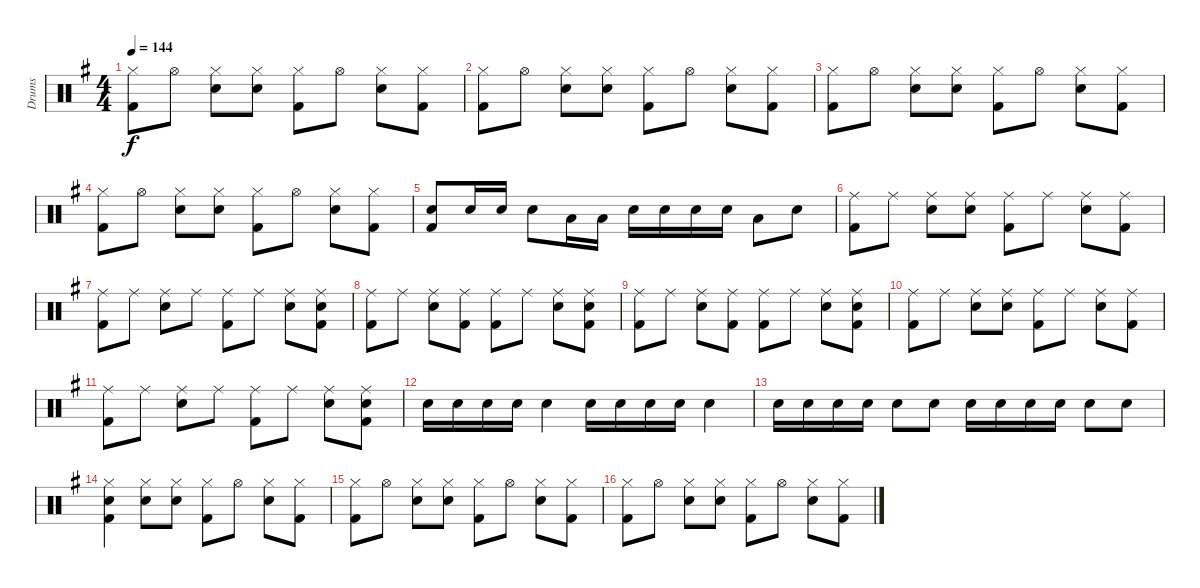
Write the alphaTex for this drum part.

\track ("Drums" "Drums") {instrument percussion}
\staff {score}
\articulation defaults
\ts (4 4)
\tempo 144
\clef neutral
\ks g
("Hi-Hat (closed)" "Kick (hit) 2").8{dy f} "Hi-Hat (open)".8 ("Hi-Hat (closed)" "Snare (hit) 2").8 ("Hi-Hat (closed)" "Snare (hit) 2").8 ("Hi-Hat (closed)" "Kick (hit) 2").8 "Hi-Hat (open)".8 ("Hi-Hat (closed)" "Snare (hit) 2").8 ("Hi-Hat (closed)" "Kick (hit) 2").8 |
("Hi-Hat (closed)" "Kick (hit) 2").8 "Hi-Hat (open)".8 ("Hi-Hat (closed)" "Snare (hit) 2").8 ("Hi-Hat (closed)" "Snare (hit) 2").8 ("Hi-Hat (closed)" "Kick (hit) 2").8 "Hi-Hat (open)".8 ("Hi-Hat (closed)" "Snare (hit) 2").8 ("Hi-Hat (closed)" "Kick (hit) 2").8 |
("Hi-Hat (closed)" "Kick (hit) 2").8 "Hi-Hat (open)".8 ("Hi-Hat (closed)" "Snare (hit) 2").8 ("Hi-Hat (closed)" "Snare (hit) 2").8 ("Hi-Hat (closed)" "Kick (hit) 2").8 "Hi-Hat (open)".8 ("Hi-Hat (closed)" "Snare (hit) 2").8 ("Hi-Hat (closed)" "Kick (hit) 2").8 |
("Hi-Hat (closed)" "Kick (hit) 2").8 "Hi-Hat (open)".8 ("Hi-Hat (closed)" "Snare (hit) 2").8 ("Hi-Hat (closed)" "Snare (hit) 2").8 ("Hi-Hat (closed)" "Kick (hit) 2").8 "Hi-Hat (open)".8 ("Hi-Hat (closed)" "Snare (hit) 2").8 ("Hi-Hat (closed)" "Kick (hit) 2").8 |
("Snare (hit) 2" "Kick (hit) 2").8 "Snare (hit) 2".16 "Snare (hit) 2".16 "Snare (hit) 2".8 "Low Tom (hit)".16 "Low Tom (hit)".16 "Snare (hit) 2".16 "Snare (hit) 2".16 "Snare (hit) 2".16 "Snare (hit) 2".16 "Low Tom (hit)".8 "Snare (hit) 2".8 |
("Ride (middle)" "Kick (hit) 2").8 "Ride (middle)".8 ("Ride (middle)" "Snare (hit) 2").8 ("Ride (middle)" "Snare (hit) 2").8 ("Ride (middle)" "Kick (hit) 2").8 "Ride (middle)".8 ("Ride (middle)" "Snare (hit) 2").8 ("Ride (middle)" "Kick (hit) 2").8 |
("Ride (middle)" "Kick (hit) 2").8 "Ride (middle)".8 ("Ride (middle)" "Snare (hit) 2").8 "Ride (middle)".8 ("Ride (middle)" "Kick (hit) 2").8 "Ride (middle)".8 ("Ride (middle)" "Snare (hit) 2").8 ("Ride (middle)" "Snare (hit) 2" "Kick (hit) 2").8 |
("Ride (middle)" "Kick (hit) 2").8 "Ride (middle)".8 ("Ride (middle)" "Snare (hit) 2").8 ("Ride (middle)" "Kick (hit) 2").8 ("Ride (middle)" "Kick (hit) 2").8 "Ride (middle)".8 ("Ride (middle)" "Snare (hit) 2").8 ("Ride (middle)" "Snare (hit) 2" "Kick (hit) 2").8 |
("Ride (middle)" "Kick (hit) 2").8 "Ride (middle)".8 ("Ride (middle)" "Snare (hit) 2").8 ("Ride (middle)" "Kick (hit) 2").8 ("Ride (middle)" "Kick (hit) 2").8 "Ride (middle)".8 ("Ride (middle)" "Snare (hit) 2").8 ("Ride (middle)" "Snare (hit) 2" "Kick (hit) 2").8 |
("Ride (middle)" "Kick (hit) 2").8 "Ride (middle)".8 ("Ride (middle)" "Snare (hit) 2").8 ("Ride (middle)" "Snare (hit) 2").8 ("Ride (middle)" "Kick (hit) 2").8 "Ride (middle)".8 ("Ride (middle)" "Snare (hit) 2").8 ("Ride (middle)" "Kick (hit) 2").8 |
("Ride (middle)" "Kick (hit) 2").8 "Ride (middle)".8 ("Ride (middle)" "Snare (hit) 2").8 "Ride (middle)".8 ("Ride (middle)" "Kick (hit) 2").8 "Ride (middle)".8 ("Ride (middle)" "Snare (hit) 2").8 ("Ride (middle)" "Snare (hit) 2" "Kick (hit) 2").8 |
"Snare (hit) 2".16 "Snare (hit) 2".16 "Snare (hit) 2".16 "Snare (hit) 2".16 "Snare (hit) 2".4 "Snare (hit) 2".16 "Snare (hit) 2".16 "Snare (hit) 2".16 "Snare (hit) 2".16 "Snare (hit) 2".4 |
"Snare (hit) 2".16 "Snare (hit) 2".16 "Snare (hit) 2".16 "Snare (hit) 2".16 "Snare (hit) 2".8 "Snare (hit) 2".8 "Snare (hit) 2".16 "Snare (hit) 2".16 "Snare (hit) 2".16 "Snare (hit) 2".16 "Snare (hit) 2".8 "Snare (hit) 2".8 |
("Hi-Hat (closed)" "Snare (hit) 2" "Kick (hit) 2").4 ("Hi-Hat (closed)" "Snare (hit) 2").8 ("Hi-Hat (closed)" "Snare (hit) 2").8 ("Hi-Hat (closed)" "Kick (hit) 2").8 "Hi-Hat (open)".8 ("Hi-Hat (closed)" "Snare (hit) 2").8 ("Hi-Hat (closed)" "Kick (hit) 2").8 |
("Hi-Hat (closed)" "Kick (hit) 2").8 "Hi-Hat (open)".8 ("Hi-Hat (closed)" "Snare (hit) 2").8 ("Hi-Hat (closed)" "Snare (hit) 2").8 ("Hi-Hat (closed)" "Kick (hit) 2").8 "Hi-Hat (open)".8 ("Hi-Hat (closed)" "Snare (hit) 2").8 ("Hi-Hat (closed)" "Kick (hit) 2").8 |
("Hi-Hat (closed)" "Kick (hit) 2").8 "Hi-Hat (open)".8 ("Hi-Hat (closed)" "Snare (hit) 2").8 ("Hi-Hat (closed)" "Snare (hit) 2").8 ("Hi-Hat (closed)" "Kick (hit) 2").8 "Hi-Hat (open)".8 ("Hi-Hat (closed)" "Snare (hit) 2").8 ("Hi-Hat (closed)" "Kick (hit) 2").8
